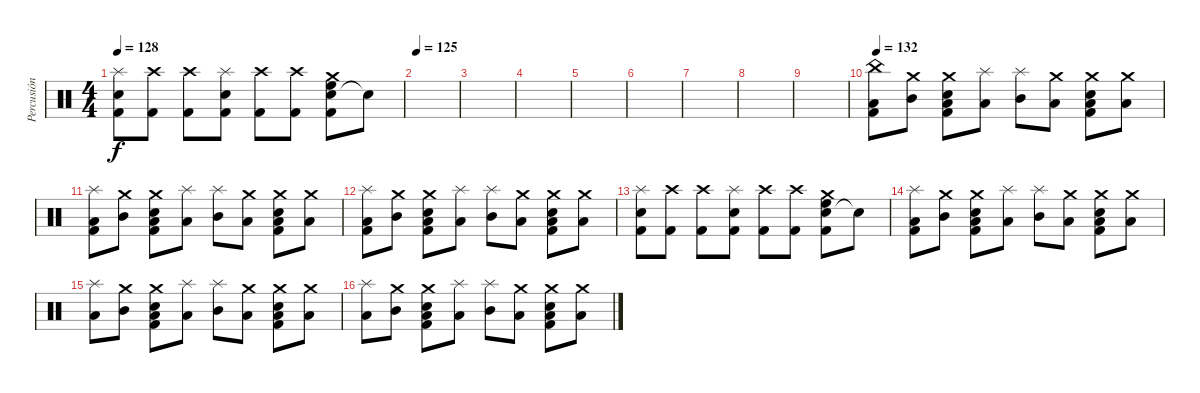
\track ("Percusión" "Percusión") {instrument percussion}
\staff {score}
\articulation defaults
\ts (4 4)
\tempo 128
\clef neutral
\ks c
("Electric Snare (hit)" "Kick (hit) 2" "Splash (hit)").8{dy f} ("Kick (hit) 2" "Crash high (hit)").8 ("Kick (hit) 2" "Crash high (hit)").8 ("Electric Snare (hit)" "Kick (hit) 2" "Splash (hit)").8 ("Kick (hit) 2" "Crash high (hit)").8 ("Kick (hit) 2" "Crash high (hit)").8 ("Electric Snare (hit)" "Kick (hit) 2" "Crash medium (hit)" "High Floor Tom (hit)").8 "Electric Snare (hit)"{t}.8 |
\tempo 105
\tempo 125
|
|
|
|
|
|
|
|
\tempo 122
\tempo 132
("China (hit)" "Low Floor Tom (hit)" "Kick (hit) 2").8 ("Crash medium (hit)" "Mid Tom (hit)").8 ("Crash medium (hit)" "Low Floor Tom (hit)" "Electric Snare (hit)" "Kick (hit) 2").8 ("Splash (hit)" "Low Floor Tom (hit)").8 ("Splash (hit)" "Mid Tom (hit)").8 ("Crash medium (hit)" "Low Floor Tom (hit)").8 ("Crash medium (hit)" "Low Floor Tom (hit)" "Electric Snare (hit)" "Kick (hit) 2").8 ("Crash medium (hit)" "Low Floor Tom (hit)").8 |
("Splash (hit)" "Low Floor Tom (hit)" "Kick (hit) 2").8 ("Crash medium (hit)" "Mid Tom (hit)").8 ("Crash medium (hit)" "Low Floor Tom (hit)" "Electric Snare (hit)" "Kick (hit) 2").8 ("Splash (hit)" "Low Floor Tom (hit)").8 ("Splash (hit)" "Mid Tom (hit)").8 ("Crash medium (hit)" "Low Floor Tom (hit)").8 ("Crash medium (hit)" "Low Floor Tom (hit)" "Electric Snare (hit)" "Kick (hit) 2").8 ("Crash medium (hit)" "Low Floor Tom (hit)").8 |
("Splash (hit)" "Low Floor Tom (hit)" "Kick (hit) 2").8 ("Crash medium (hit)" "Mid Tom (hit)").8 ("Crash medium (hit)" "Low Floor Tom (hit)" "Electric Snare (hit)" "Kick (hit) 2").8 ("Splash (hit)" "Low Floor Tom (hit)").8 ("Splash (hit)" "Mid Tom (hit)").8 ("Crash medium (hit)" "Low Floor Tom (hit)").8 ("Crash medium (hit)" "Low Floor Tom (hit)" "Electric Snare (hit)" "Kick (hit) 2").8 ("Crash medium (hit)" "Low Floor Tom (hit)").8 |
("Electric Snare (hit)" "Kick (hit) 2" "Splash (hit)").8 ("Kick (hit) 2" "Crash high (hit)").8 ("Kick (hit) 2" "Crash high (hit)").8 ("Electric Snare (hit)" "Kick (hit) 2" "Splash (hit)").8 ("Kick (hit) 2" "Crash high (hit)").8 ("Kick (hit) 2" "Crash high (hit)").8 ("Electric Snare (hit)" "Kick (hit) 2" "Crash medium (hit)" "High Floor Tom (hit)").8 "Electric Snare (hit)"{t}.8 |
("Splash (hit)" "Low Floor Tom (hit)" "Kick (hit) 2").8 ("Crash medium (hit)" "Mid Tom (hit)").8 ("Crash medium (hit)" "Low Floor Tom (hit)" "Electric Snare (hit)" "Kick (hit) 2").8 ("Splash (hit)" "Low Floor Tom (hit)").8 ("Splash (hit)" "Mid Tom (hit)").8 ("Crash medium (hit)" "Low Floor Tom (hit)").8 ("Crash medium (hit)" "Low Floor Tom (hit)" "Electric Snare (hit)" "Kick (hit) 2").8 ("Crash medium (hit)" "Low Floor Tom (hit)").8 |
("Splash (hit)" "Low Floor Tom (hit)").8 ("Crash medium (hit)" "Mid Tom (hit)").8 ("Crash medium (hit)" "Low Floor Tom (hit)" "Electric Snare (hit)" "Kick (hit) 2").8 ("Splash (hit)" "Low Floor Tom (hit)").8 ("Splash (hit)" "Mid Tom (hit)").8 ("Crash medium (hit)" "Low Floor Tom (hit)").8 ("Crash medium (hit)" "Low Floor Tom (hit)" "Electric Snare (hit)" "Kick (hit) 2").8 ("Crash medium (hit)" "Low Floor Tom (hit)").8 |
("Splash (hit)" "Low Floor Tom (hit)").8 ("Crash medium (hit)" "Mid Tom (hit)").8 ("Crash medium (hit)" "Low Floor Tom (hit)" "Electric Snare (hit)" "Kick (hit) 2").8 ("Splash (hit)" "Low Floor Tom (hit)").8 ("Splash (hit)" "Mid Tom (hit)").8 ("Crash medium (hit)" "Low Floor Tom (hit)").8 ("Crash medium (hit)" "Low Floor Tom (hit)" "Electric Snare (hit)" "Kick (hit) 2").8 ("Crash medium (hit)" "Low Floor Tom (hit)").8
